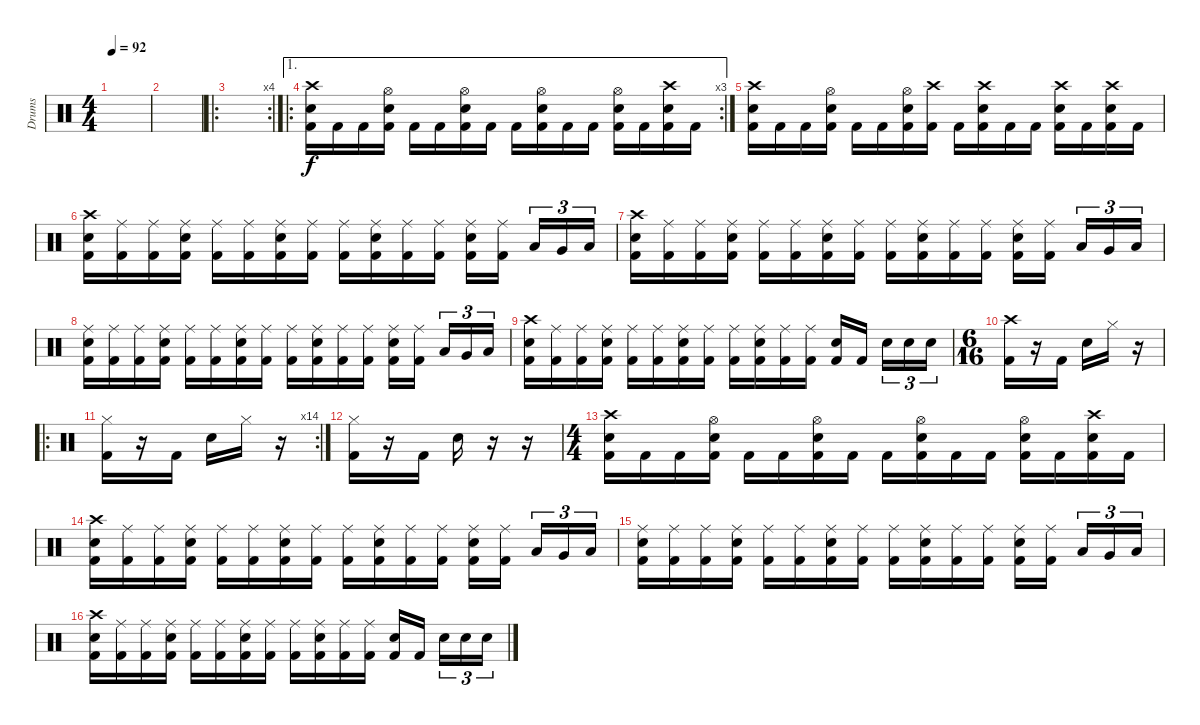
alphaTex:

\track ("Drums               " "Drums     ") {instrument percussion}
\staff {score}
\articulation defaults
\ts (4 4)
\tempo 92
\clef neutral
\ks c
|
|
\ro
\rc 4
|
\ae 1
\ro
\rc 3
("Crash high (hit)" "Electric Snare (hit)" "Kick (hit) 2").16 "Kick (hit) 2".16 "Kick (hit) 2".16 ("Hi-Hat (open)" "Electric Snare (hit)" "Kick (hit) 2").16 "Kick (hit) 2".16 "Kick (hit) 2".16 ("Hi-Hat (open)" "Electric Snare (hit)" "Kick (hit) 2").16 "Kick (hit) 2".16 "Kick (hit) 2".16 ("Hi-Hat (open)" "Electric Snare (hit)" "Kick (hit) 2").16 "Kick (hit) 2".16 "Kick (hit) 2".16 ("Hi-Hat (open)" "Electric Snare (hit)" "Kick (hit) 2").16 "Kick (hit) 2".16 ("Crash high (hit)" "Electric Snare (hit)" "Kick (hit) 2").16 "Kick (hit) 2".16 |
("Crash high (hit)" "Electric Snare (hit)" "Kick (hit) 2").16 "Kick (hit) 2".16 "Kick (hit) 2".16 ("Hi-Hat (open)" "Electric Snare (hit)" "Kick (hit) 2").16 "Kick (hit) 2".16 "Kick (hit) 2".16 ("Hi-Hat (open)" "Electric Snare (hit)" "Kick (hit) 2").16 ("Crash high (hit)" "Kick (hit) 2").16 "Kick (hit) 2".16 ("Crash high (hit)" "Electric Snare (hit)" "Kick (hit) 2").16 "Kick (hit) 2".16 "Kick (hit) 2".16 ("Crash high (hit)" "Electric Snare (hit)" "Kick (hit) 2").16 "Kick (hit) 2".16 ("Crash high (hit)" "Electric Snare (hit)" "Kick (hit) 2").16 "Kick (hit) 2".16 |
("Crash high (hit)" "Electric Snare (hit)" "Kick (hit) 2").16 ("Ride (middle)" "Kick (hit) 2").16 ("Ride (middle)" "Kick (hit) 2").16 ("Ride (middle)" "Electric Snare (hit)" "Kick (hit) 2").16 ("Ride (middle)" "Kick (hit) 2").16 ("Ride (middle)" "Kick (hit) 2").16 ("Ride (middle)" "Electric Snare (hit)" "Kick (hit) 2").16 ("Ride (middle)" "Kick (hit) 2").16 ("Ride (middle)" "Kick (hit) 2").16 ("Ride (middle)" "Electric Snare (hit)" "Kick (hit) 2").16 ("Ride (middle)" "Kick (hit) 2").16 ("Ride (middle)" "Kick (hit) 2").16 ("Ride (middle)" "Electric Snare (hit)" "Kick (hit) 2").16 ("Ride (middle)" "Kick (hit) 2").16 "Low Tom (hit)".16{tu (3 2)} "Very Low Tom (hit)".16{tu (3 2)} "Low Floor Tom (hit)".16{tu (3 2)} |
("Crash high (hit)" "Electric Snare (hit)" "Kick (hit) 2").16 ("Ride (middle)" "Kick (hit) 2").16 ("Ride (middle)" "Kick (hit) 2").16 ("Ride (middle)" "Electric Snare (hit)" "Kick (hit) 2").16 ("Ride (middle)" "Kick (hit) 2").16 ("Ride (middle)" "Kick (hit) 2").16 ("Ride (middle)" "Electric Snare (hit)" "Kick (hit) 2").16 ("Ride (middle)" "Kick (hit) 2").16 ("Ride (middle)" "Kick (hit) 2").16 ("Ride (middle)" "Electric Snare (hit)" "Kick (hit) 2").16 ("Ride (middle)" "Kick (hit) 2").16 ("Ride (middle)" "Kick (hit) 2").16 ("Ride (middle)" "Electric Snare (hit)" "Kick (hit) 2").16 ("Ride (middle)" "Kick (hit) 2").16 "Low Tom (hit)".16{tu (3 2)} "Very Low Tom (hit)".16{tu (3 2)} "Low Floor Tom (hit)".16{tu (3 2)} |
("Ride (middle)" "Electric Snare (hit)" "Kick (hit) 2").16 ("Ride (middle)" "Kick (hit) 2").16 ("Ride (middle)" "Kick (hit) 2").16 ("Ride (middle)" "Electric Snare (hit)" "Kick (hit) 2").16 ("Ride (middle)" "Kick (hit) 2").16 ("Ride (middle)" "Kick (hit) 2").16 ("Ride (middle)" "Electric Snare (hit)" "Kick (hit) 2").16 ("Ride (middle)" "Kick (hit) 2").16 ("Ride (middle)" "Kick (hit) 2").16 ("Ride (middle)" "Electric Snare (hit)" "Kick (hit) 2").16 ("Ride (middle)" "Kick (hit) 2").16 ("Ride (middle)" "Kick (hit) 2").16 ("Ride (middle)" "Electric Snare (hit)" "Kick (hit) 2").16 ("Ride (middle)" "Kick (hit) 2").16 "Low Tom (hit)".16{tu (3 2)} "Very Low Tom (hit)".16{tu (3 2)} "Low Floor Tom (hit)".16{tu (3 2)} |
("Crash high (hit)" "Electric Snare (hit)" "Kick (hit) 2").16 ("Ride (middle)" "Kick (hit) 2").16 ("Ride (middle)" "Kick (hit) 2").16 ("Ride (middle)" "Electric Snare (hit)" "Kick (hit) 2").16 ("Ride (middle)" "Kick (hit) 2").16 ("Ride (middle)" "Kick (hit) 2").16 ("Ride (middle)" "Electric Snare (hit)" "Kick (hit) 2").16 ("Ride (middle)" "Kick (hit) 2").16 ("Ride (middle)" "Kick (hit) 2").16 ("Ride (middle)" "Electric Snare (hit)" "Kick (hit) 2").16 ("Ride (middle)" "Kick (hit) 2").16 ("Ride (middle)" "Kick (hit) 2").16 ("Electric Snare (hit)" "Kick (hit) 2").16 "Kick (hit) 2".16 "Electric Snare (hit)".16{tu (3 2)} "Electric Snare (hit)".16{tu (3 2)} "Electric Snare (hit)".16{tu (3 2)} |
\ts (6 16)
("Crash high (hit)" "Kick (hit) 2").16 r.16 "Kick (hit) 2".16 "Electric Snare (hit)".16 "Hi-Hat (closed)".16 r.16 |
\ro
\rc 14
("Hi-Hat (closed)" "Kick (hit) 2").16 r.16 "Kick (hit) 2".16 "Electric Snare (hit)".16 "Hi-Hat (closed)".16 r.16 |
("Hi-Hat (closed)" "Kick (hit) 2").16 r.16 "Kick (hit) 2".16 "Electric Snare (hit)".16 r.16 r.16 |
\ts (4 4)
("Crash high (hit)" "Electric Snare (hit)" "Kick (hit) 2").16 "Kick (hit) 2".16 "Kick (hit) 2".16 ("Hi-Hat (open)" "Electric Snare (hit)" "Kick (hit) 2").16 "Kick (hit) 2".16 "Kick (hit) 2".16 ("Hi-Hat (open)" "Electric Snare (hit)" "Kick (hit) 2").16 "Kick (hit) 2".16 "Kick (hit) 2".16 ("Hi-Hat (open)" "Electric Snare (hit)" "Kick (hit) 2").16 "Kick (hit) 2".16 "Kick (hit) 2".16 ("Hi-Hat (open)" "Electric Snare (hit)" "Kick (hit) 2").16 "Kick (hit) 2".16 ("Crash high (hit)" "Electric Snare (hit)" "Kick (hit) 2").16 "Kick (hit) 2".16 |
("Crash high (hit)" "Electric Snare (hit)" "Kick (hit) 2").16 ("Ride (middle)" "Kick (hit) 2").16 ("Ride (middle)" "Kick (hit) 2").16 ("Ride (middle)" "Electric Snare (hit)" "Kick (hit) 2").16 ("Ride (middle)" "Kick (hit) 2").16 ("Ride (middle)" "Kick (hit) 2").16 ("Ride (middle)" "Electric Snare (hit)" "Kick (hit) 2").16 ("Ride (middle)" "Kick (hit) 2").16 ("Ride (middle)" "Kick (hit) 2").16 ("Ride (middle)" "Electric Snare (hit)" "Kick (hit) 2").16 ("Ride (middle)" "Kick (hit) 2").16 ("Ride (middle)" "Kick (hit) 2").16 ("Ride (middle)" "Electric Snare (hit)" "Kick (hit) 2").16 ("Ride (middle)" "Kick (hit) 2").16 "Low Tom (hit)".16{tu (3 2)} "Very Low Tom (hit)".16{tu (3 2)} "Low Floor Tom (hit)".16{tu (3 2)} |
("Ride (middle)" "Electric Snare (hit)" "Kick (hit) 2").16 ("Ride (middle)" "Kick (hit) 2").16 ("Ride (middle)" "Kick (hit) 2").16 ("Ride (middle)" "Electric Snare (hit)" "Kick (hit) 2").16 ("Ride (middle)" "Kick (hit) 2").16 ("Ride (middle)" "Kick (hit) 2").16 ("Ride (middle)" "Electric Snare (hit)" "Kick (hit) 2").16 ("Ride (middle)" "Kick (hit) 2").16 ("Ride (middle)" "Kick (hit) 2").16 ("Ride (middle)" "Electric Snare (hit)" "Kick (hit) 2").16 ("Ride (middle)" "Kick (hit) 2").16 ("Ride (middle)" "Kick (hit) 2").16 ("Ride (middle)" "Electric Snare (hit)" "Kick (hit) 2").16 ("Ride (middle)" "Kick (hit) 2").16 "Low Tom (hit)".16{tu (3 2)} "Very Low Tom (hit)".16{tu (3 2)} "Low Floor Tom (hit)".16{tu (3 2)} |
("Crash high (hit)" "Electric Snare (hit)" "Kick (hit) 2").16 ("Ride (middle)" "Kick (hit) 2").16 ("Ride (middle)" "Kick (hit) 2").16 ("Ride (middle)" "Electric Snare (hit)" "Kick (hit) 2").16 ("Ride (middle)" "Kick (hit) 2").16 ("Ride (middle)" "Kick (hit) 2").16 ("Ride (middle)" "Electric Snare (hit)" "Kick (hit) 2").16 ("Ride (middle)" "Kick (hit) 2").16 ("Ride (middle)" "Kick (hit) 2").16 ("Ride (middle)" "Electric Snare (hit)" "Kick (hit) 2").16 ("Ride (middle)" "Kick (hit) 2").16 ("Ride (middle)" "Kick (hit) 2").16 ("Electric Snare (hit)" "Kick (hit) 2").16 "Kick (hit) 2".16 "Electric Snare (hit)".16{tu (3 2)} "Electric Snare (hit)".16{tu (3 2)} "Electric Snare (hit)".16{tu (3 2)}
